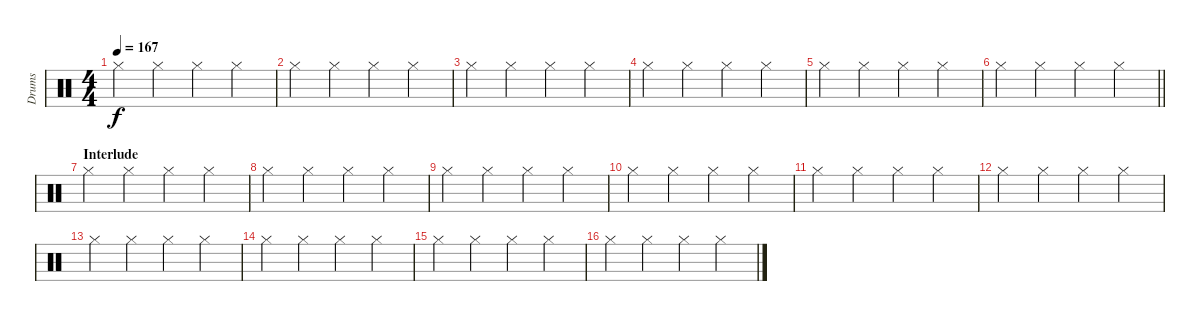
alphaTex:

\track ("Drums" "Drums") {instrument percussion}
\staff {score}
\articulation defaults
\ts (4 4)
\tempo 167
\clef neutral
\ks c "Hi-Hat (closed)".4{dy f} "Hi-Hat (closed)".4 "Hi-Hat (closed)".4 "Hi-Hat (closed)".4
|
"Hi-Hat (closed)".4 "Hi-Hat (closed)".4 "Hi-Hat (closed)".4 "Hi-Hat (closed)".4 |
"Hi-Hat (closed)".4 "Hi-Hat (closed)".4 "Hi-Hat (closed)".4 "Hi-Hat (closed)".4 |
"Hi-Hat (closed)".4 "Hi-Hat (closed)".4 "Hi-Hat (closed)".4 "Hi-Hat (closed)".4 |
"Hi-Hat (closed)".4 "Hi-Hat (closed)".4 "Hi-Hat (closed)".4 "Hi-Hat (closed)".4 |
\barLineRight lightlight "Hi-Hat (closed)".4 "Hi-Hat (closed)".4 "Hi-Hat (closed)".4 "Hi-Hat (closed)".4
|
\section ("" "Interlude")
"Hi-Hat (closed)".4 "Hi-Hat (closed)".4 "Hi-Hat (closed)".4 "Hi-Hat (closed)".4 |
"Hi-Hat (closed)".4 "Hi-Hat (closed)".4 "Hi-Hat (closed)".4 "Hi-Hat (closed)".4 |
"Hi-Hat (closed)".4 "Hi-Hat (closed)".4 "Hi-Hat (closed)".4 "Hi-Hat (closed)".4 |
"Hi-Hat (closed)".4 "Hi-Hat (closed)".4 "Hi-Hat (closed)".4 "Hi-Hat (closed)".4 |
"Hi-Hat (closed)".4 "Hi-Hat (closed)".4 "Hi-Hat (closed)".4 "Hi-Hat (closed)".4 |
"Hi-Hat (closed)".4 "Hi-Hat (closed)".4 "Hi-Hat (closed)".4 "Hi-Hat (closed)".4 |
"Hi-Hat (closed)".4 "Hi-Hat (closed)".4 "Hi-Hat (closed)".4 "Hi-Hat (closed)".4 |
"Hi-Hat (closed)".4 "Hi-Hat (closed)".4 "Hi-Hat (closed)".4 "Hi-Hat (closed)".4 |
"Hi-Hat (closed)".4 "Hi-Hat (closed)".4 "Hi-Hat (closed)".4 "Hi-Hat (closed)".4 |
"Hi-Hat (closed)".4 "Hi-Hat (closed)".4 "Hi-Hat (closed)".4 "Hi-Hat (closed)".4
